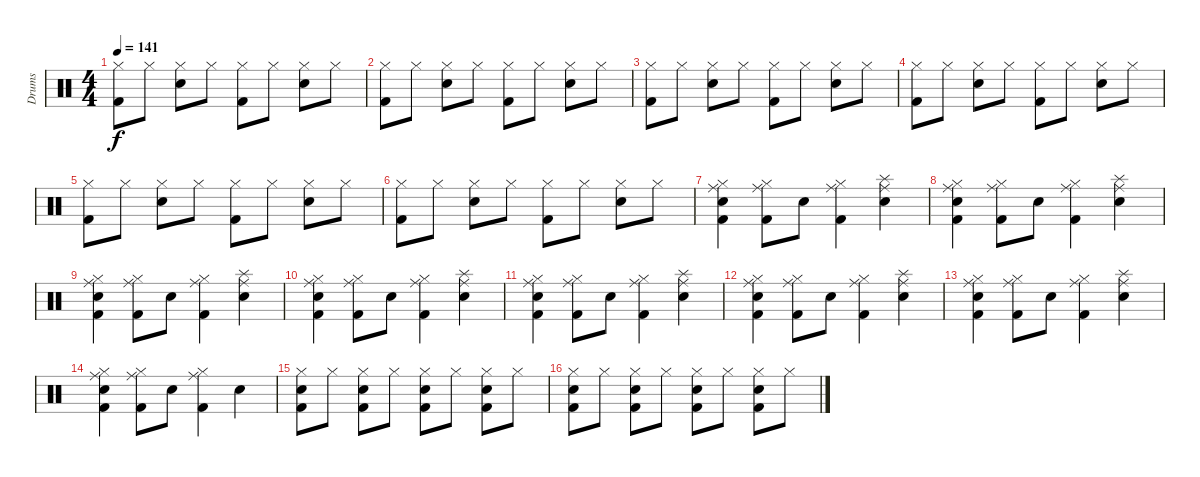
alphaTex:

\track ("Drums" "Drums") {instrument percussion}
\staff {score}
\articulation defaults
\ts (4 4)
\tempo 141
\clef neutral
\ks c
("Hi-Hat (closed)" "Kick (hit) 2").8{dy f} "Hi-Hat (closed)".8 ("Hi-Hat (closed)" "Snare (hit) 2").8 "Hi-Hat (closed)".8 ("Hi-Hat (closed)" "Kick (hit) 2").8 "Hi-Hat (closed)".8 ("Hi-Hat (closed)" "Snare (hit) 2").8 "Hi-Hat (closed)".8 |
("Hi-Hat (closed)" "Kick (hit) 2").8 "Hi-Hat (closed)".8 ("Hi-Hat (closed)" "Snare (hit) 2").8 "Hi-Hat (closed)".8 ("Hi-Hat (closed)" "Kick (hit) 2").8 "Hi-Hat (closed)".8 ("Hi-Hat (closed)" "Snare (hit) 2").8 "Hi-Hat (closed)".8 |
("Hi-Hat (closed)" "Kick (hit) 2").8 "Hi-Hat (closed)".8 ("Hi-Hat (closed)" "Snare (hit) 2").8 "Hi-Hat (closed)".8 ("Hi-Hat (closed)" "Kick (hit) 2").8 "Hi-Hat (closed)".8 ("Hi-Hat (closed)" "Snare (hit) 2").8 "Hi-Hat (closed)".8 |
("Hi-Hat (closed)" "Kick (hit) 2").8 "Hi-Hat (closed)".8 ("Hi-Hat (closed)" "Snare (hit) 2").8 "Hi-Hat (closed)".8 ("Hi-Hat (closed)" "Kick (hit) 2").8 "Hi-Hat (closed)".8 ("Hi-Hat (closed)" "Snare (hit) 2").8 "Hi-Hat (closed)".8 |
("Hi-Hat (closed)" "Kick (hit) 2").8 "Hi-Hat (closed)".8 ("Hi-Hat (closed)" "Snare (hit) 2").8 "Hi-Hat (closed)".8 ("Hi-Hat (closed)" "Kick (hit) 2").8 "Hi-Hat (closed)".8 ("Hi-Hat (closed)" "Snare (hit) 2").8 "Hi-Hat (closed)".8 |
("Hi-Hat (closed)" "Kick (hit) 2").8 "Hi-Hat (closed)".8 ("Hi-Hat (closed)" "Snare (hit) 2").8 "Hi-Hat (closed)".8 ("Hi-Hat (closed)" "Kick (hit) 2").8 "Hi-Hat (closed)".8 ("Hi-Hat (closed)" "Snare (hit) 2").8 "Hi-Hat (closed)".8 |
("Hi-Hat (closed)" "Ride (middle)" "Electric Snare (hit)" "Kick (hit) 2").4 ("Hi-Hat (closed)" "Ride (middle)" "Kick (hit) 2").8 "Electric Snare (hit)".8 ("Hi-Hat (closed)" "Ride (middle)" "Kick (hit) 2").4 ("Splash (hit)" "Ride (middle)" "Electric Snare (hit)").4 |
("Hi-Hat (closed)" "Ride (middle)" "Electric Snare (hit)" "Kick (hit) 2").4 ("Hi-Hat (closed)" "Ride (middle)" "Kick (hit) 2").8 "Electric Snare (hit)".8 ("Hi-Hat (closed)" "Ride (middle)" "Kick (hit) 2").4 ("Splash (hit)" "Ride (middle)" "Electric Snare (hit)").4 |
("Hi-Hat (closed)" "Ride (middle)" "Electric Snare (hit)" "Kick (hit) 2").4 ("Hi-Hat (closed)" "Ride (middle)" "Kick (hit) 2").8 "Electric Snare (hit)".8 ("Hi-Hat (closed)" "Ride (middle)" "Kick (hit) 2").4 ("Splash (hit)" "Ride (middle)" "Electric Snare (hit)").4 |
("Hi-Hat (closed)" "Ride (middle)" "Electric Snare (hit)" "Kick (hit) 2").4 ("Hi-Hat (closed)" "Ride (middle)" "Kick (hit) 2").8 "Electric Snare (hit)".8 ("Hi-Hat (closed)" "Ride (middle)" "Kick (hit) 2").4 ("Splash (hit)" "Ride (middle)" "Electric Snare (hit)").4 |
("Hi-Hat (closed)" "Ride (middle)" "Electric Snare (hit)" "Kick (hit) 2").4 ("Hi-Hat (closed)" "Ride (middle)" "Kick (hit) 2").8 "Electric Snare (hit)".8 ("Hi-Hat (closed)" "Ride (middle)" "Kick (hit) 2").4 ("Splash (hit)" "Ride (middle)" "Electric Snare (hit)").4 |
("Hi-Hat (closed)" "Ride (middle)" "Electric Snare (hit)" "Kick (hit) 2").4 ("Hi-Hat (closed)" "Ride (middle)" "Kick (hit) 2").8 "Electric Snare (hit)".8 ("Hi-Hat (closed)" "Ride (middle)" "Kick (hit) 2").4 ("Splash (hit)" "Ride (middle)" "Electric Snare (hit)").4 |
("Hi-Hat (closed)" "Ride (middle)" "Electric Snare (hit)" "Kick (hit) 2").4 ("Hi-Hat (closed)" "Ride (middle)" "Kick (hit) 2").8 "Electric Snare (hit)".8 ("Hi-Hat (closed)" "Ride (middle)" "Kick (hit) 2").4 ("Splash (hit)" "Ride (middle)" "Electric Snare (hit)").4 |
("Hi-Hat (closed)" "Ride (middle)" "Electric Snare (hit)" "Kick (hit) 2").4 ("Hi-Hat (closed)" "Ride (middle)" "Kick (hit) 2").8 "Electric Snare (hit)".8 ("Hi-Hat (closed)" "Ride (middle)" "Kick (hit) 2").4 "Electric Snare (hit)".4 |
("Hi-Hat (closed)" "Electric Snare (hit)" "Kick (hit) 2").8 "Hi-Hat (closed)".8 ("Hi-Hat (closed)" "Electric Snare (hit)" "Kick (hit) 2").8 "Hi-Hat (closed)".8 ("Hi-Hat (closed)" "Electric Snare (hit)" "Kick (hit) 2").8 "Hi-Hat (closed)".8 ("Hi-Hat (closed)" "Electric Snare (hit)" "Kick (hit) 2").8 "Hi-Hat (closed)".8 |
("Hi-Hat (closed)" "Electric Snare (hit)" "Kick (hit) 2").8 "Hi-Hat (closed)".8 ("Hi-Hat (closed)" "Electric Snare (hit)" "Kick (hit) 2").8 "Hi-Hat (closed)".8 ("Hi-Hat (closed)" "Electric Snare (hit)" "Kick (hit) 2").8 "Hi-Hat (closed)".8 ("Hi-Hat (closed)" "Electric Snare (hit)" "Kick (hit) 2").8 "Hi-Hat (closed)".8
